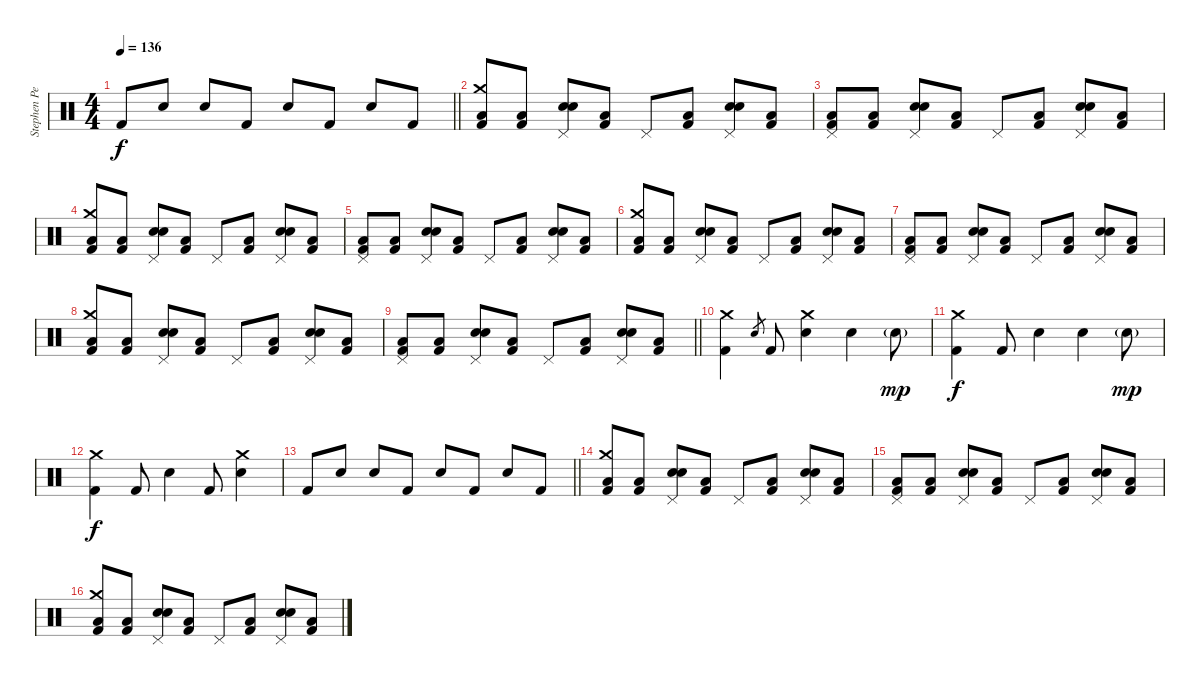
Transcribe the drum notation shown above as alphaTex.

\track ("Stephen Perkins (Drums)" "Stephen Pe") {instrument percussion}
\staff {score}
\articulation defaults
\ts (4 4)
\tempo 136
\clef neutral
\barLineRight lightlight
\ks c "Kick (hit) 2".8{dy f} "Electric Snare (hit)".8 "Electric Snare (hit)".8 "Kick (hit) 2".8 "Electric Snare (hit)".8 "Kick (hit) 2".8 "Electric Snare (hit)".8 "Kick (hit) 2".8
|
("Crash medium (hit)" "Low Floor Tom (hit)" "Kick (hit) 2").8 ("Low Floor Tom (hit)" "Kick (hit) 2").8 ("Pedal Hi-Hat (hit)" "Electric Snare (hit)" "Snare (hit) 2").8 ("Low Floor Tom (hit)" "Kick (hit) 2").8 "Pedal Hi-Hat (hit)".8 ("Low Floor Tom (hit)" "Kick (hit) 2").8 ("Pedal Hi-Hat (hit)" "Electric Snare (hit)" "Snare (hit) 2").8 ("Low Tom (hit)" "Kick (hit) 2").8 |
("Pedal Hi-Hat (hit)" "Low Floor Tom (hit)" "Kick (hit) 2").8 ("Low Floor Tom (hit)" "Kick (hit) 2").8 ("Pedal Hi-Hat (hit)" "Electric Snare (hit)" "Snare (hit) 2").8 ("Low Floor Tom (hit)" "Kick (hit) 2").8 "Pedal Hi-Hat (hit)".8 ("Low Floor Tom (hit)" "Kick (hit) 2").8 ("Pedal Hi-Hat (hit)" "Electric Snare (hit)" "Snare (hit) 2").8 ("Low Tom (hit)" "Kick (hit) 2").8 |
("Crash medium (hit)" "Low Floor Tom (hit)" "Kick (hit) 2").8 ("Low Floor Tom (hit)" "Kick (hit) 2").8 ("Pedal Hi-Hat (hit)" "Electric Snare (hit)" "Snare (hit) 2").8 ("Low Floor Tom (hit)" "Kick (hit) 2").8 "Pedal Hi-Hat (hit)".8 ("Low Floor Tom (hit)" "Kick (hit) 2").8 ("Pedal Hi-Hat (hit)" "Electric Snare (hit)" "Snare (hit) 2").8 ("Low Tom (hit)" "Kick (hit) 2").8 |
("Pedal Hi-Hat (hit)" "Low Floor Tom (hit)" "Kick (hit) 2").8 ("Low Floor Tom (hit)" "Kick (hit) 2").8 ("Pedal Hi-Hat (hit)" "Electric Snare (hit)" "Snare (hit) 2").8 ("Low Floor Tom (hit)" "Kick (hit) 2").8 "Pedal Hi-Hat (hit)".8 ("Low Floor Tom (hit)" "Kick (hit) 2").8 ("Pedal Hi-Hat (hit)" "Electric Snare (hit)" "Snare (hit) 2").8 ("Low Tom (hit)" "Kick (hit) 2").8 |
("Crash medium (hit)" "Low Floor Tom (hit)" "Kick (hit) 2").8 ("Low Floor Tom (hit)" "Kick (hit) 2").8 ("Pedal Hi-Hat (hit)" "Electric Snare (hit)" "Snare (hit) 2").8 ("Low Floor Tom (hit)" "Kick (hit) 2").8 "Pedal Hi-Hat (hit)".8 ("Low Floor Tom (hit)" "Kick (hit) 2").8 ("Pedal Hi-Hat (hit)" "Electric Snare (hit)" "Snare (hit) 2").8 ("Low Tom (hit)" "Kick (hit) 2").8 |
("Pedal Hi-Hat (hit)" "Low Floor Tom (hit)" "Kick (hit) 2").8 ("Low Floor Tom (hit)" "Kick (hit) 2").8 ("Pedal Hi-Hat (hit)" "Electric Snare (hit)" "Snare (hit) 2").8 ("Low Floor Tom (hit)" "Kick (hit) 2").8 "Pedal Hi-Hat (hit)".8 ("Low Floor Tom (hit)" "Kick (hit) 2").8 ("Pedal Hi-Hat (hit)" "Electric Snare (hit)" "Snare (hit) 2").8 ("Low Tom (hit)" "Kick (hit) 2").8 |
("Crash medium (hit)" "Low Floor Tom (hit)" "Kick (hit) 2").8 ("Low Floor Tom (hit)" "Kick (hit) 2").8 ("Pedal Hi-Hat (hit)" "Electric Snare (hit)" "Snare (hit) 2").8 ("Low Floor Tom (hit)" "Kick (hit) 2").8 "Pedal Hi-Hat (hit)".8 ("Low Floor Tom (hit)" "Kick (hit) 2").8 ("Pedal Hi-Hat (hit)" "Electric Snare (hit)" "Snare (hit) 2").8 ("Low Tom (hit)" "Kick (hit) 2").8 |
\barLineRight lightlight
("Pedal Hi-Hat (hit)" "Low Floor Tom (hit)" "Kick (hit) 2").8 ("Low Floor Tom (hit)" "Kick (hit) 2").8 ("Pedal Hi-Hat (hit)" "Electric Snare (hit)" "Snare (hit) 2").8 ("Low Floor Tom (hit)" "Kick (hit) 2").8 "Pedal Hi-Hat (hit)".8 ("Low Floor Tom (hit)" "Kick (hit) 2").8 ("Pedal Hi-Hat (hit)" "Electric Snare (hit)" "Snare (hit) 2").8 ("Low Tom (hit)" "Kick (hit) 2").8 |
("Crash medium (hit)" "Kick (hit) 2").4 "Electric Snare (hit)".8{gr} "Kick (hit) 2".8 ("Crash medium (hit)" "Electric Snare (hit)").4 "Electric Snare (hit)".4 "Electric Snare (hit)"{g}.8{dy mp} |
("Crash medium (hit)" "Kick (hit) 2").4{dy f} "Kick (hit) 2".8 "Electric Snare (hit)".4 "Electric Snare (hit)".4 "Electric Snare (hit)"{g}.8{dy mp} |
("Crash medium (hit)" "Kick (hit) 2").4{dy f} "Kick (hit) 2".8 "Electric Snare (hit)".4 "Kick (hit) 2".8 ("Crash medium (hit)" "Electric Snare (hit)").4 |
\barLineRight lightlight "Kick (hit) 2".8 "Electric Snare (hit)".8 "Electric Snare (hit)".8 "Kick (hit) 2".8 "Electric Snare (hit)".8 "Kick (hit) 2".8 "Electric Snare (hit)".8 "Kick (hit) 2".8
|
("Crash medium (hit)" "Low Floor Tom (hit)" "Kick (hit) 2").8 ("Low Floor Tom (hit)" "Kick (hit) 2").8 ("Pedal Hi-Hat (hit)" "Electric Snare (hit)" "Snare (hit) 2").8 ("Low Floor Tom (hit)" "Kick (hit) 2").8 "Pedal Hi-Hat (hit)".8 ("Low Floor Tom (hit)" "Kick (hit) 2").8 ("Pedal Hi-Hat (hit)" "Electric Snare (hit)" "Snare (hit) 2").8 ("Low Tom (hit)" "Kick (hit) 2").8 |
("Pedal Hi-Hat (hit)" "Low Floor Tom (hit)" "Kick (hit) 2").8 ("Low Floor Tom (hit)" "Kick (hit) 2").8 ("Pedal Hi-Hat (hit)" "Electric Snare (hit)" "Snare (hit) 2").8 ("Low Floor Tom (hit)" "Kick (hit) 2").8 "Pedal Hi-Hat (hit)".8 ("Low Floor Tom (hit)" "Kick (hit) 2").8 ("Pedal Hi-Hat (hit)" "Electric Snare (hit)" "Snare (hit) 2").8 ("Low Tom (hit)" "Kick (hit) 2").8 |
("Crash medium (hit)" "Low Floor Tom (hit)" "Kick (hit) 2").8 ("Low Floor Tom (hit)" "Kick (hit) 2").8 ("Pedal Hi-Hat (hit)" "Electric Snare (hit)" "Snare (hit) 2").8 ("Low Floor Tom (hit)" "Kick (hit) 2").8 "Pedal Hi-Hat (hit)".8 ("Low Floor Tom (hit)" "Kick (hit) 2").8 ("Pedal Hi-Hat (hit)" "Electric Snare (hit)" "Snare (hit) 2").8 ("Low Tom (hit)" "Kick (hit) 2").8
